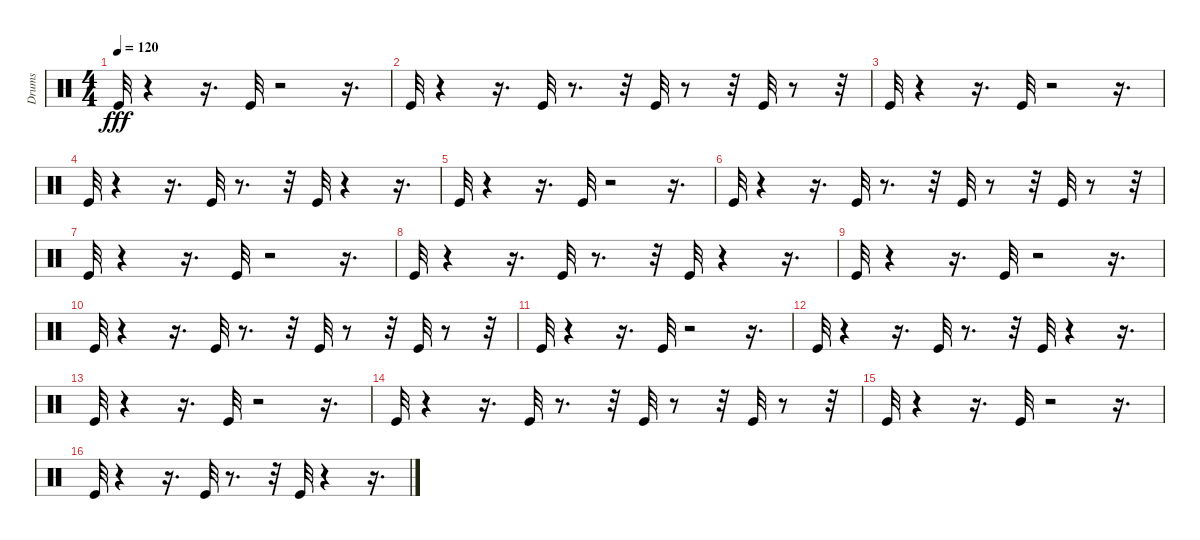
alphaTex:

\track ("Drums" "Drums") {instrument percussion}
\staff {score}
\articulation defaults
\ts (4 4)
\tempo 120
\clef neutral
\ks c "Kick (hit)".32{dy fff}
r.4 r.16{d} "Kick (hit)".32 r.2 r.16{d} |
"Kick (hit)".32 r.4 r.16{d} "Kick (hit)".32 r.8{d} r.32 "Kick (hit)".32 r.8 r.32 "Kick (hit)".32 r.8 r.32 |
"Kick (hit)".32 r.4 r.16{d} "Kick (hit)".32 r.2 r.16{d} |
"Kick (hit)".32 r.4 r.16{d} "Kick (hit)".32 r.8{d} r.32 "Kick (hit)".32 r.4 r.16{d} |
"Kick (hit)".32 r.4 r.16{d} "Kick (hit)".32 r.2 r.16{d} |
"Kick (hit)".32 r.4 r.16{d} "Kick (hit)".32 r.8{d} r.32 "Kick (hit)".32 r.8 r.32 "Kick (hit)".32 r.8 r.32 |
"Kick (hit)".32 r.4 r.16{d} "Kick (hit)".32 r.2 r.16{d} |
"Kick (hit)".32 r.4 r.16{d} "Kick (hit)".32 r.8{d} r.32 "Kick (hit)".32 r.4 r.16{d} |
"Kick (hit)".32 r.4 r.16{d} "Kick (hit)".32 r.2 r.16{d} |
"Kick (hit)".32 r.4 r.16{d} "Kick (hit)".32 r.8{d} r.32 "Kick (hit)".32 r.8 r.32 "Kick (hit)".32 r.8 r.32 |
"Kick (hit)".32 r.4 r.16{d} "Kick (hit)".32 r.2 r.16{d} |
"Kick (hit)".32 r.4 r.16{d} "Kick (hit)".32 r.8{d} r.32 "Kick (hit)".32 r.4 r.16{d} |
"Kick (hit)".32 r.4 r.16{d} "Kick (hit)".32 r.2 r.16{d} |
"Kick (hit)".32 r.4 r.16{d} "Kick (hit)".32 r.8{d} r.32 "Kick (hit)".32 r.8 r.32 "Kick (hit)".32 r.8 r.32 |
"Kick (hit)".32 r.4 r.16{d} "Kick (hit)".32 r.2 r.16{d} |
"Kick (hit)".32 r.4 r.16{d} "Kick (hit)".32 r.8{d} r.32 "Kick (hit)".32 r.4 r.16{d}
